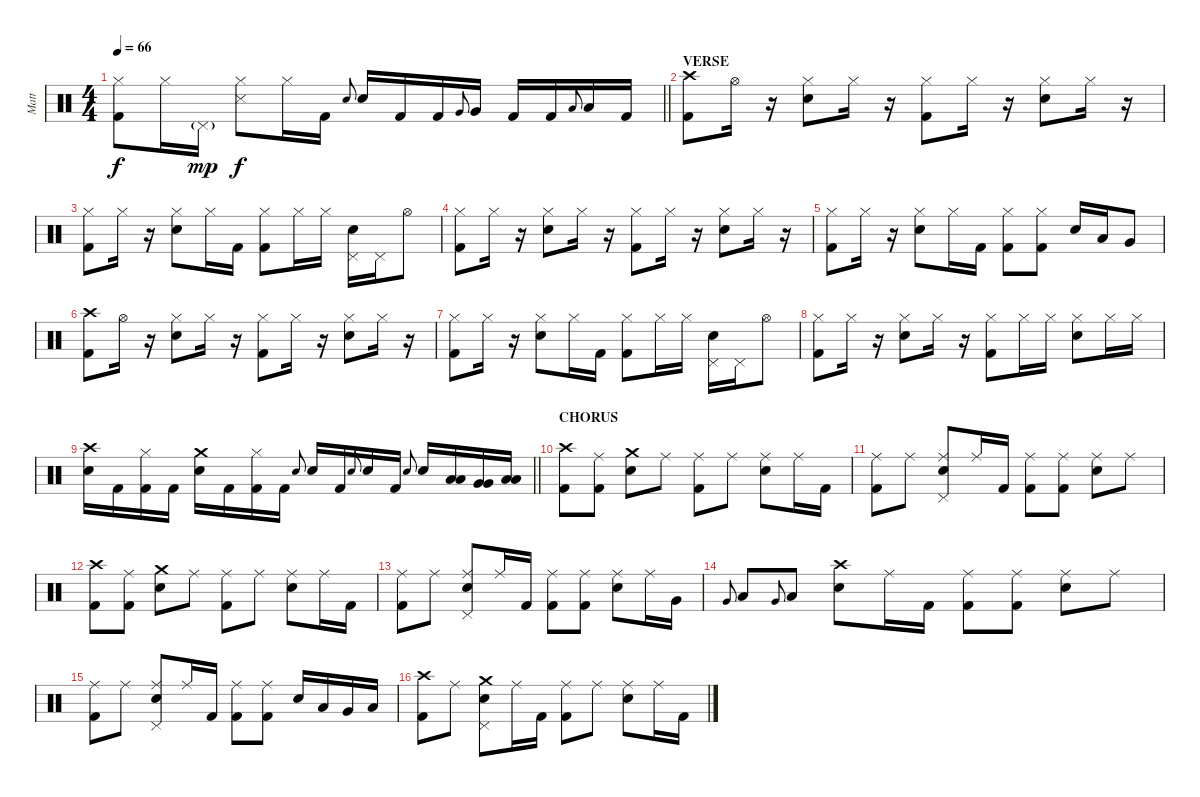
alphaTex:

\track ("Matt" "Matt") {instrument percussion}
\staff {score}
\articulation defaults
\ts (4 4)
\tempo 66
\clef neutral
\barLineRight lightlight
\ks c
("Kick (hit) 2" "Hi-Hat (closed)").8{dy f} "Hi-Hat (closed)".16 "Pedal Hi-Hat (hit)"{g}.16{dy mp} ("Metronome (hit)" "Hi-Hat (closed)").8{dy f} "Hi-Hat (closed)".16 "Kick (hit) 2".16 "Snare (hit) 2".8{gr onbeat} "Electric Snare (hit)".16 "Kick (hit) 2".16 "Kick (hit) 2".16 "Very Low Tom (hit)".8{gr onbeat} "Very Low Tom (hit)".16 "Kick (hit) 2".16 "Kick (hit) 2".16 "Low Floor Tom (hit)".8{gr onbeat} "Low Floor Tom (hit)".16 "Kick (hit) 2".16 |
\section ("" "VERSE")
("Crash high (hit)" "Kick (hit) 2").8 "Hi-Hat (open)".16 r.16 ("Electric Snare (hit)" "Hi-Hat (closed)").8 "Hi-Hat (closed)".16 r.16 ("Kick (hit) 2" "Hi-Hat (closed)").8 "Hi-Hat (closed)".16 r.16 ("Electric Snare (hit)" "Hi-Hat (closed)").8 "Hi-Hat (closed)".16 r.16 |
("Kick (hit) 2" "Hi-Hat (closed)").8 "Hi-Hat (closed)".16 r.16 ("Electric Snare (hit)" "Hi-Hat (closed)").8 "Hi-Hat (closed)".16 "Kick (hit) 2".16 ("Kick (hit) 2" "Hi-Hat (closed)").8 "Hi-Hat (closed)".16 "Hi-Hat (closed)".16 ("Electric Snare (hit)" "Pedal Hi-Hat (hit)").16 "Pedal Hi-Hat (hit)".16 "Hi-Hat (open)".8 |
("Kick (hit) 2" "Hi-Hat (closed)").8 "Hi-Hat (closed)".16 r.16 ("Electric Snare (hit)" "Hi-Hat (closed)").8 "Hi-Hat (closed)".16 r.16 ("Kick (hit) 2" "Hi-Hat (closed)").8 "Hi-Hat (closed)".16 r.16 ("Electric Snare (hit)" "Hi-Hat (closed)").8 "Hi-Hat (closed)".16 r.16 |
("Kick (hit) 2" "Hi-Hat (closed)").8 "Hi-Hat (closed)".16 r.16 ("Electric Snare (hit)" "Hi-Hat (closed)").8 "Hi-Hat (closed)".16 "Kick (hit) 2".16 ("Kick (hit) 2" "Hi-Hat (closed)").8 ("Kick (hit) 2" "Hi-Hat (closed)").8 "Electric Snare (hit)".16 "Low Tom (hit)".16 "Very Low Tom (hit)".8 |
("Crash high (hit)" "Kick (hit) 2").8 "Hi-Hat (open)".16 r.16 ("Electric Snare (hit)" "Hi-Hat (closed)").8 "Hi-Hat (closed)".16 r.16 ("Kick (hit) 2" "Hi-Hat (closed)").8 "Hi-Hat (closed)".16 r.16 ("Electric Snare (hit)" "Hi-Hat (closed)").8 "Hi-Hat (closed)".16 r.16 |
("Kick (hit) 2" "Hi-Hat (closed)").8 "Hi-Hat (closed)".16 r.16 ("Electric Snare (hit)" "Hi-Hat (closed)").8 "Hi-Hat (closed)".16 "Kick (hit) 2".16 ("Kick (hit) 2" "Hi-Hat (closed)").8 "Hi-Hat (closed)".16 "Hi-Hat (closed)".16 ("Electric Snare (hit)" "Pedal Hi-Hat (hit)").16 "Pedal Hi-Hat (hit)".16 "Hi-Hat (open)".8 |
("Kick (hit) 2" "Hi-Hat (closed)").8 "Hi-Hat (closed)".16 r.16 ("Electric Snare (hit)" "Hi-Hat (closed)").8 "Hi-Hat (closed)".16 r.16 ("Kick (hit) 2" "Hi-Hat (closed)").8 "Hi-Hat (closed)".16 "Hi-Hat (closed)".16 ("Electric Snare (hit)" "Hi-Hat (closed)").8 "Hi-Hat (closed)".16 "Hi-Hat (closed)".16 |
\barLineRight lightlight
("Crash high (hit)" "Electric Snare (hit)").16 "Kick (hit) 2".16 ("Kick (hit) 2" "Hi-Hat (closed)").16 "Kick (hit) 2".16 ("Crash medium (hit)" "Electric Snare (hit)").16 "Kick (hit) 2".16 ("Kick (hit) 2" "Hi-Hat (closed)").16 "Kick (hit) 2".16 "Snare (hit) 2".8{gr onbeat} "Electric Snare (hit)".16 "Kick (hit) 2".16 "Snare (hit) 2".8{gr onbeat} "Electric Snare (hit)".16 "Kick (hit) 2".16 "Snare (hit) 2".8{gr onbeat} "Electric Snare (hit)".16 ("Low Tom (hit)" "Low Tom (hit)").16 ("Very Low Tom (hit)" "Very Low Tom (hit)").16 ("Low Floor Tom (hit)" "Low Floor Tom (hit)").16 |
\section ("" "CHORUS")
("Crash high (hit)" "Kick (hit) 2").8 ("Kick (hit) 2" "Ride (middle)").8 ("Crash medium (hit)" "Electric Snare (hit)").8 "Ride (middle)".8 ("Kick (hit) 2" "Ride (middle)").8 "Ride (middle)".8 ("Electric Snare (hit)" "Ride (middle)").8 "Ride (middle)".16 "Kick (hit) 2".16 |
("Kick (hit) 2" "Ride (middle)").8 "Ride (middle)".8 ("Electric Snare (hit)" "Pedal Hi-Hat (hit)" "Ride (middle)").8 "Ride (middle)".16 "Kick (hit) 2".16 ("Kick (hit) 2" "Ride (middle)").8 ("Kick (hit) 2" "Ride (middle)").8 ("Electric Snare (hit)" "Ride (middle)").8 "Ride (middle)".8 |
("Crash high (hit)" "Kick (hit) 2").8 ("Kick (hit) 2" "Ride (middle)").8 ("Crash medium (hit)" "Electric Snare (hit)").8 "Ride (middle)".8 ("Kick (hit) 2" "Ride (middle)").8 "Ride (middle)".8 ("Electric Snare (hit)" "Ride (middle)").8 "Ride (middle)".16 "Kick (hit) 2".16 |
("Kick (hit) 2" "Ride (middle)").8 "Ride (middle)".8 ("Electric Snare (hit)" "Pedal Hi-Hat (hit)" "Ride (middle)").8 "Ride (middle)".16 "Kick (hit) 2".16 ("Kick (hit) 2" "Ride (middle)").8 ("Kick (hit) 2" "Ride (middle)").8 ("Electric Snare (hit)" "Ride (middle)").8 "Ride (middle)".16 "Very Low Tom (hit)".16 |
"Very Low Tom (hit)".8{gr onbeat} "Low Floor Tom (hit)".8 "Very Low Tom (hit)".8{gr onbeat} "Low Floor Tom (hit)".8 ("Crash high (hit)" "Electric Snare (hit)").8 "Ride (middle)".16 "Kick (hit) 2".16 ("Kick (hit) 2" "Ride (middle)").8 ("Kick (hit) 2" "Ride (middle)").8 ("Electric Snare (hit)" "Ride (middle)").8 "Ride (middle)".8 |
("Kick (hit) 2" "Ride (middle)").8 "Ride (middle)".8 ("Electric Snare (hit)" "Pedal Hi-Hat (hit)" "Ride (middle)").8 "Ride (middle)".16 "Kick (hit) 2".16 ("Kick (hit) 2" "Ride (middle)").8 ("Kick (hit) 2" "Ride (middle)").8 "Electric Snare (hit)".16 "Low Tom (hit)".16 "Very Low Tom (hit)".16 "Low Floor Tom (hit)".16 |
("Crash high (hit)" "Kick (hit) 2").8 "Ride (middle)".8 ("Crash medium (hit)" "Electric Snare (hit)" "Pedal Hi-Hat (hit)").8 "Ride (middle)".16 "Kick (hit) 2".16 ("Kick (hit) 2" "Ride (middle)").8 "Ride (middle)".8 ("Electric Snare (hit)" "Ride (middle)").8 "Ride (middle)".16 "Kick (hit) 2".16
